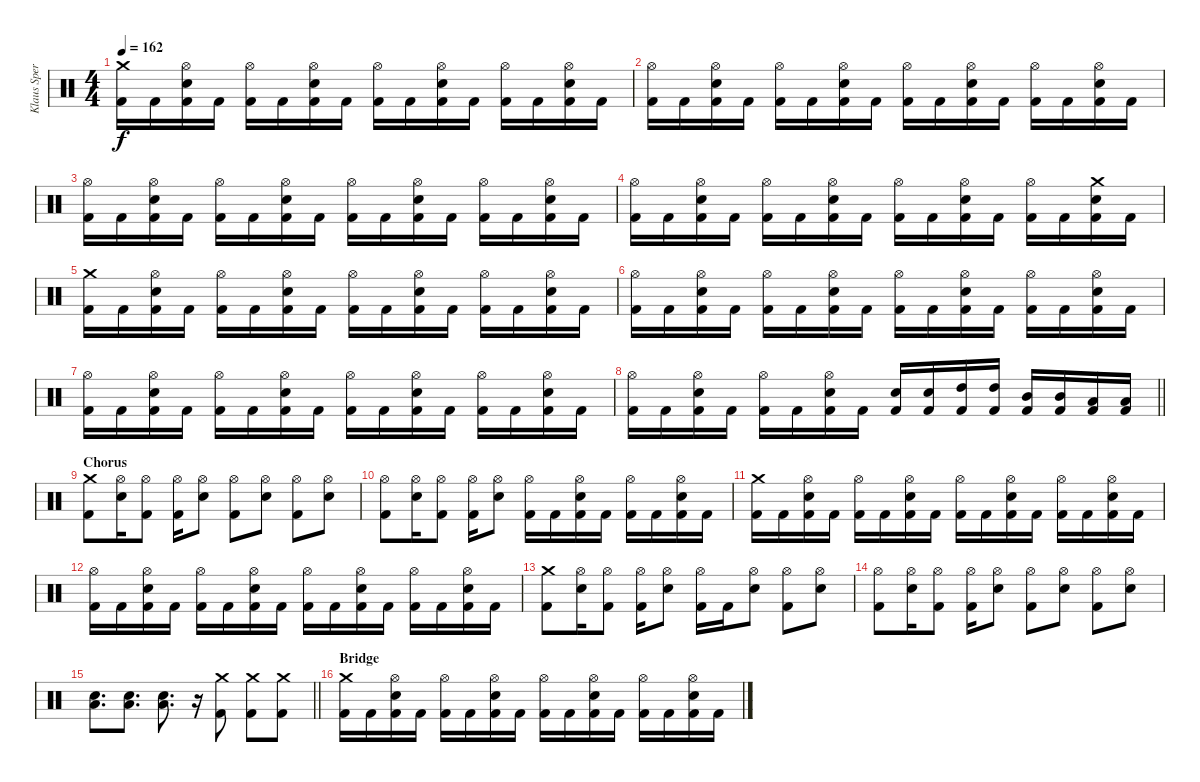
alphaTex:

\track ("Klaus Sperling" "Klaus Sper") {instrument percussion}
\staff {score}
\articulation defaults
\ts (4 4)
\tempo 162
\clef neutral
\ks c
("Crash medium (hit)" "Kick (hit) 2").16{dy f} "Kick (hit) 2".16 ("Hi-Hat (open)" "Electric Snare (hit)" "Kick (hit) 2").16 "Kick (hit) 2".16 ("Hi-Hat (open)" "Kick (hit) 2").16 "Kick (hit) 2".16 ("Hi-Hat (open)" "Electric Snare (hit)" "Kick (hit) 2").16 "Kick (hit) 2".16 ("Hi-Hat (open)" "Kick (hit) 2").16 "Kick (hit) 2".16 ("Hi-Hat (open)" "Electric Snare (hit)" "Kick (hit) 2").16 "Kick (hit) 2".16 ("Hi-Hat (open)" "Kick (hit) 2").16 "Kick (hit) 2".16 ("Hi-Hat (open)" "Electric Snare (hit)" "Kick (hit) 2").16 "Kick (hit) 2".16 |
("Hi-Hat (open)" "Kick (hit) 2").16 "Kick (hit) 2".16 ("Hi-Hat (open)" "Electric Snare (hit)" "Kick (hit) 2").16 "Kick (hit) 2".16 ("Hi-Hat (open)" "Kick (hit) 2").16 "Kick (hit) 2".16 ("Hi-Hat (open)" "Electric Snare (hit)" "Kick (hit) 2").16 "Kick (hit) 2".16 ("Hi-Hat (open)" "Kick (hit) 2").16 "Kick (hit) 2".16 ("Hi-Hat (open)" "Electric Snare (hit)" "Kick (hit) 2").16 "Kick (hit) 2".16 ("Hi-Hat (open)" "Kick (hit) 2").16 "Kick (hit) 2".16 ("Hi-Hat (open)" "Electric Snare (hit)" "Kick (hit) 2").16 "Kick (hit) 2".16 |
("Hi-Hat (open)" "Kick (hit) 2").16 "Kick (hit) 2".16 ("Hi-Hat (open)" "Electric Snare (hit)" "Kick (hit) 2").16 "Kick (hit) 2".16 ("Hi-Hat (open)" "Kick (hit) 2").16 "Kick (hit) 2".16 ("Hi-Hat (open)" "Electric Snare (hit)" "Kick (hit) 2").16 "Kick (hit) 2".16 ("Hi-Hat (open)" "Kick (hit) 2").16 "Kick (hit) 2".16 ("Hi-Hat (open)" "Electric Snare (hit)" "Kick (hit) 2").16 "Kick (hit) 2".16 ("Hi-Hat (open)" "Kick (hit) 2").16 "Kick (hit) 2".16 ("Hi-Hat (open)" "Electric Snare (hit)" "Kick (hit) 2").16 "Kick (hit) 2".16 |
("Hi-Hat (open)" "Kick (hit) 2").16 "Kick (hit) 2".16 ("Hi-Hat (open)" "Electric Snare (hit)" "Kick (hit) 2").16 "Kick (hit) 2".16 ("Hi-Hat (open)" "Kick (hit) 2").16 "Kick (hit) 2".16 ("Hi-Hat (open)" "Electric Snare (hit)" "Kick (hit) 2").16 "Kick (hit) 2".16 ("Hi-Hat (open)" "Kick (hit) 2").16 "Kick (hit) 2".16 ("Hi-Hat (open)" "Electric Snare (hit)" "Kick (hit) 2").16 "Kick (hit) 2".16 ("Hi-Hat (open)" "Kick (hit) 2").16 "Kick (hit) 2".16 ("Crash medium (hit)" "Electric Snare (hit)" "Kick (hit) 2").16 "Kick (hit) 2".16 |
("Crash medium (hit)" "Kick (hit) 2").16 "Kick (hit) 2".16 ("Hi-Hat (open)" "Electric Snare (hit)" "Kick (hit) 2").16 "Kick (hit) 2".16 ("Hi-Hat (open)" "Kick (hit) 2").16 "Kick (hit) 2".16 ("Hi-Hat (open)" "Electric Snare (hit)" "Kick (hit) 2").16 "Kick (hit) 2".16 ("Hi-Hat (open)" "Kick (hit) 2").16 "Kick (hit) 2".16 ("Hi-Hat (open)" "Electric Snare (hit)" "Kick (hit) 2").16 "Kick (hit) 2".16 ("Hi-Hat (open)" "Kick (hit) 2").16 "Kick (hit) 2".16 ("Hi-Hat (open)" "Electric Snare (hit)" "Kick (hit) 2").16 "Kick (hit) 2".16 |
("Hi-Hat (open)" "Kick (hit) 2").16 "Kick (hit) 2".16 ("Hi-Hat (open)" "Electric Snare (hit)" "Kick (hit) 2").16 "Kick (hit) 2".16 ("Hi-Hat (open)" "Kick (hit) 2").16 "Kick (hit) 2".16 ("Hi-Hat (open)" "Electric Snare (hit)" "Kick (hit) 2").16 "Kick (hit) 2".16 ("Hi-Hat (open)" "Kick (hit) 2").16 "Kick (hit) 2".16 ("Hi-Hat (open)" "Electric Snare (hit)" "Kick (hit) 2").16 "Kick (hit) 2".16 ("Hi-Hat (open)" "Kick (hit) 2").16 "Kick (hit) 2".16 ("Hi-Hat (open)" "Electric Snare (hit)" "Kick (hit) 2").16 "Kick (hit) 2".16 |
("Hi-Hat (open)" "Kick (hit) 2").16 "Kick (hit) 2".16 ("Hi-Hat (open)" "Electric Snare (hit)" "Kick (hit) 2").16 "Kick (hit) 2".16 ("Hi-Hat (open)" "Kick (hit) 2").16 "Kick (hit) 2".16 ("Hi-Hat (open)" "Electric Snare (hit)" "Kick (hit) 2").16 "Kick (hit) 2".16 ("Hi-Hat (open)" "Kick (hit) 2").16 "Kick (hit) 2".16 ("Hi-Hat (open)" "Electric Snare (hit)" "Kick (hit) 2").16 "Kick (hit) 2".16 ("Hi-Hat (open)" "Kick (hit) 2").16 "Kick (hit) 2".16 ("Hi-Hat (open)" "Electric Snare (hit)" "Kick (hit) 2").16 "Kick (hit) 2".16 |
\barLineRight lightlight
("Hi-Hat (open)" "Kick (hit) 2").16 "Kick (hit) 2".16 ("Hi-Hat (open)" "Electric Snare (hit)" "Kick (hit) 2").16 "Kick (hit) 2".16 ("Hi-Hat (open)" "Kick (hit) 2").16 "Kick (hit) 2".16 ("Hi-Hat (open)" "Electric Snare (hit)" "Kick (hit) 2").16 "Kick (hit) 2".16 ("Electric Snare (hit)" "Kick (hit) 2").16 ("Electric Snare (hit)" "Kick (hit) 2").16 ("High Tom (hit)" "Kick (hit) 2").16 ("High Tom (hit)" "Kick (hit) 2").16 ("Mid Tom (hit)" "Kick (hit) 2").16 ("Mid Tom (hit)" "Kick (hit) 2").16 ("Low Tom (hit)" "Kick (hit) 2").16 ("Low Tom (hit)" "Kick (hit) 2").16 |
\section ("" "Chorus")
("Crash medium (hit)" "Kick (hit) 2").8 ("Hi-Hat (open)" "Electric Snare (hit)").16 ("Hi-Hat (open)" "Kick (hit) 2").8 ("Hi-Hat (open)" "Kick (hit) 2").16 ("Hi-Hat (open)" "Electric Snare (hit)").8 ("Hi-Hat (open)" "Kick (hit) 2").8 ("Hi-Hat (open)" "Electric Snare (hit)").8 ("Hi-Hat (open)" "Kick (hit) 2").8 ("Hi-Hat (open)" "Electric Snare (hit)").8 |
("Hi-Hat (open)" "Kick (hit) 2").8 ("Hi-Hat (open)" "Electric Snare (hit)").16 ("Hi-Hat (open)" "Kick (hit) 2").8 ("Hi-Hat (open)" "Kick (hit) 2").16 ("Hi-Hat (open)" "Electric Snare (hit)").8 ("Hi-Hat (open)" "Kick (hit) 2").16 "Kick (hit) 2".16 ("Hi-Hat (open)" "Electric Snare (hit)" "Kick (hit) 2").16 "Kick (hit) 2".16 ("Hi-Hat (open)" "Kick (hit) 2").16 "Kick (hit) 2".16 ("Hi-Hat (open)" "Electric Snare (hit)" "Kick (hit) 2").16 "Kick (hit) 2".16 |
("Crash medium (hit)" "Kick (hit) 2").16 "Kick (hit) 2".16 ("Hi-Hat (open)" "Electric Snare (hit)" "Kick (hit) 2").16 "Kick (hit) 2".16 ("Hi-Hat (open)" "Kick (hit) 2").16 "Kick (hit) 2".16 ("Hi-Hat (open)" "Electric Snare (hit)" "Kick (hit) 2").16 "Kick (hit) 2".16 ("Hi-Hat (open)" "Kick (hit) 2").16 "Kick (hit) 2".16 ("Hi-Hat (open)" "Electric Snare (hit)" "Kick (hit) 2").16 "Kick (hit) 2".16 ("Hi-Hat (open)" "Kick (hit) 2").16 "Kick (hit) 2".16 ("Hi-Hat (open)" "Electric Snare (hit)" "Kick (hit) 2").16 "Kick (hit) 2".16 |
("Hi-Hat (open)" "Kick (hit) 2").16 "Kick (hit) 2".16 ("Hi-Hat (open)" "Electric Snare (hit)" "Kick (hit) 2").16 "Kick (hit) 2".16 ("Hi-Hat (open)" "Kick (hit) 2").16 "Kick (hit) 2".16 ("Hi-Hat (open)" "Electric Snare (hit)" "Kick (hit) 2").16 "Kick (hit) 2".16 ("Hi-Hat (open)" "Kick (hit) 2").16 "Kick (hit) 2".16 ("Hi-Hat (open)" "Electric Snare (hit)" "Kick (hit) 2").16 "Kick (hit) 2".16 ("Hi-Hat (open)" "Kick (hit) 2").16 "Kick (hit) 2".16 ("Hi-Hat (open)" "Electric Snare (hit)" "Kick (hit) 2").16 "Kick (hit) 2".16 |
("Crash medium (hit)" "Kick (hit) 2").8 ("Hi-Hat (open)" "Electric Snare (hit)").16 ("Hi-Hat (open)" "Kick (hit) 2").8 ("Hi-Hat (open)" "Kick (hit) 2").16 ("Hi-Hat (open)" "Electric Snare (hit)").8 ("Hi-Hat (open)" "Kick (hit) 2").16 "Kick (hit) 2".16 ("Hi-Hat (open)" "Electric Snare (hit)").8 ("Hi-Hat (open)" "Kick (hit) 2").8 ("Hi-Hat (open)" "Electric Snare (hit)").8 |
("Hi-Hat (open)" "Kick (hit) 2").8 ("Hi-Hat (open)" "Electric Snare (hit)").16 ("Hi-Hat (open)" "Kick (hit) 2").8 ("Hi-Hat (open)" "Kick (hit) 2").16 ("Hi-Hat (open)" "Electric Snare (hit)").8 ("Hi-Hat (open)" "Kick (hit) 2").8 ("Hi-Hat (open)" "Electric Snare (hit)").8 ("Hi-Hat (open)" "Kick (hit) 2").8 ("Hi-Hat (open)" "Electric Snare (hit)").8 |
\barLineRight lightlight
("Electric Snare (hit)" "Low Floor Tom (hit)").8{d} ("Electric Snare (hit)" "Low Floor Tom (hit)").8{d} ("Electric Snare (hit)" "Low Floor Tom (hit)").8{d} r.16 ("Crash medium (hit)" "Kick (hit) 2").8 ("Crash medium (hit)" "Kick (hit) 2").8 ("Crash medium (hit)" "Kick (hit) 2").8 |
\section ("" "Bridge")
("Crash medium (hit)" "Kick (hit) 2").16 "Kick (hit) 2".16 ("Hi-Hat (open)" "Electric Snare (hit)" "Kick (hit) 2").16 "Kick (hit) 2".16 ("Hi-Hat (open)" "Kick (hit) 2").16 "Kick (hit) 2".16 ("Hi-Hat (open)" "Electric Snare (hit)" "Kick (hit) 2").16 "Kick (hit) 2".16 ("Hi-Hat (open)" "Kick (hit) 2").16 "Kick (hit) 2".16 ("Hi-Hat (open)" "Electric Snare (hit)" "Kick (hit) 2").16 "Kick (hit) 2".16 ("Hi-Hat (open)" "Kick (hit) 2").16 "Kick (hit) 2".16 ("Hi-Hat (open)" "Electric Snare (hit)" "Kick (hit) 2").16 "Kick (hit) 2".16
